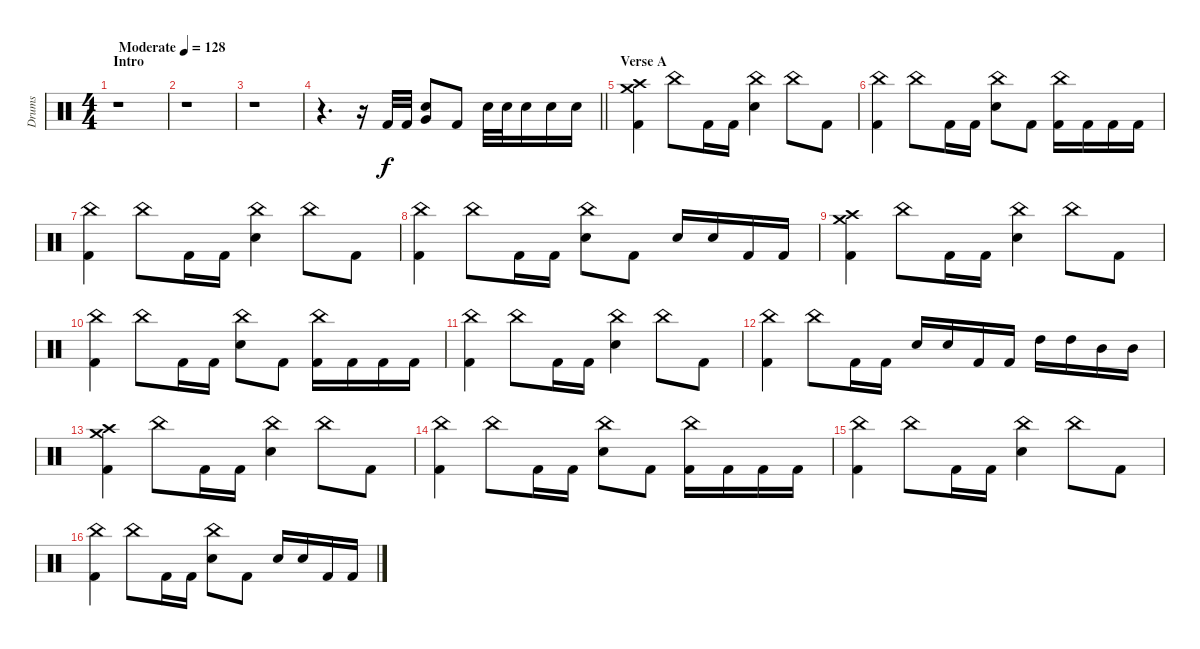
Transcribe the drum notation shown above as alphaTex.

\track ("Drums" "Drums") {instrument percussion}
\staff {score}
\articulation defaults
\ts (4 4)
\section ("" "Intro")
\tempo (128 "Moderate")
\clef neutral
\ks c
r.1{dy f} |
r.1 |
r.1 |
\barLineRight lightlight
r.4{d} r.16 "Kick (hit) 2".32 "Kick (hit) 2".32 ("Snare (hit) 2" "Very Low Tom (hit)").8 "Kick (hit) 2".8 "Snare (hit) 2".32 "Snare (hit) 2".32 "Snare (hit) 2".16 "Snare (hit) 2".16 "Snare (hit) 2".16 |
\section ("" "Verse A")
("Kick (hit) 2" "Crash high (hit)" "Crash medium (hit)").4 "China (hit)".8 "Kick (hit) 2".16 "Kick (hit) 2".16 ("Snare (hit) 2" "China (hit)").4 "China (hit)".8 "Kick (hit) 2".8 |
("Kick (hit) 2" "China (hit)").4 "China (hit)".8 "Kick (hit) 2".16 "Kick (hit) 2".16 ("Snare (hit) 2" "China (hit)").8 "Kick (hit) 2".8 ("Kick (hit) 2" "China (hit)").16 "Kick (hit) 2".16 "Kick (hit) 2".16 "Kick (hit) 2".16 |
("Kick (hit) 2" "China (hit)").4 "China (hit)".8 "Kick (hit) 2".16 "Kick (hit) 2".16 ("Snare (hit) 2" "China (hit)").4 "China (hit)".8 "Kick (hit) 2".8 |
("Kick (hit) 2" "China (hit)").4 "China (hit)".8 "Kick (hit) 2".16 "Kick (hit) 2".16 ("Snare (hit) 2" "China (hit)").8 "Kick (hit) 2".8 "Snare (hit) 2".16 "Snare (hit) 2".16 "Kick (hit) 2".16 "Kick (hit) 2".16 |
("Kick (hit) 2" "Crash high (hit)" "Crash medium (hit)").4 "China (hit)".8 "Kick (hit) 2".16 "Kick (hit) 2".16 ("Snare (hit) 2" "China (hit)").4 "China (hit)".8 "Kick (hit) 2".8 |
("Kick (hit) 2" "China (hit)").4 "China (hit)".8 "Kick (hit) 2".16 "Kick (hit) 2".16 ("Snare (hit) 2" "China (hit)").8 "Kick (hit) 2".8 ("Kick (hit) 2" "China (hit)").16 "Kick (hit) 2".16 "Kick (hit) 2".16 "Kick (hit) 2".16 |
("Kick (hit) 2" "China (hit)").4 "China (hit)".8 "Kick (hit) 2".16 "Kick (hit) 2".16 ("Snare (hit) 2" "China (hit)").4 "China (hit)".8 "Kick (hit) 2".8 |
("Kick (hit) 2" "China (hit)").4 "China (hit)".8 "Kick (hit) 2".16 "Kick (hit) 2".16 "Snare (hit) 2".16 "Snare (hit) 2".16 "Kick (hit) 2".16 "Kick (hit) 2".16 "High Tom (hit)".16 "High Tom (hit)".16 "Mid Tom (hit)".16 "Mid Tom (hit)".16 |
("Kick (hit) 2" "Crash high (hit)" "Crash medium (hit)").4 "China (hit)".8 "Kick (hit) 2".16 "Kick (hit) 2".16 ("Snare (hit) 2" "China (hit)").4 "China (hit)".8 "Kick (hit) 2".8 |
("Kick (hit) 2" "China (hit)").4 "China (hit)".8 "Kick (hit) 2".16 "Kick (hit) 2".16 ("Snare (hit) 2" "China (hit)").8 "Kick (hit) 2".8 ("Kick (hit) 2" "China (hit)").16 "Kick (hit) 2".16 "Kick (hit) 2".16 "Kick (hit) 2".16 |
("Kick (hit) 2" "China (hit)").4 "China (hit)".8 "Kick (hit) 2".16 "Kick (hit) 2".16 ("Snare (hit) 2" "China (hit)").4 "China (hit)".8 "Kick (hit) 2".8 |
("Kick (hit) 2" "China (hit)").4 "China (hit)".8 "Kick (hit) 2".16 "Kick (hit) 2".16 ("Snare (hit) 2" "China (hit)").8 "Kick (hit) 2".8 "Snare (hit) 2".16 "Snare (hit) 2".16 "Kick (hit) 2".16 "Kick (hit) 2".16
